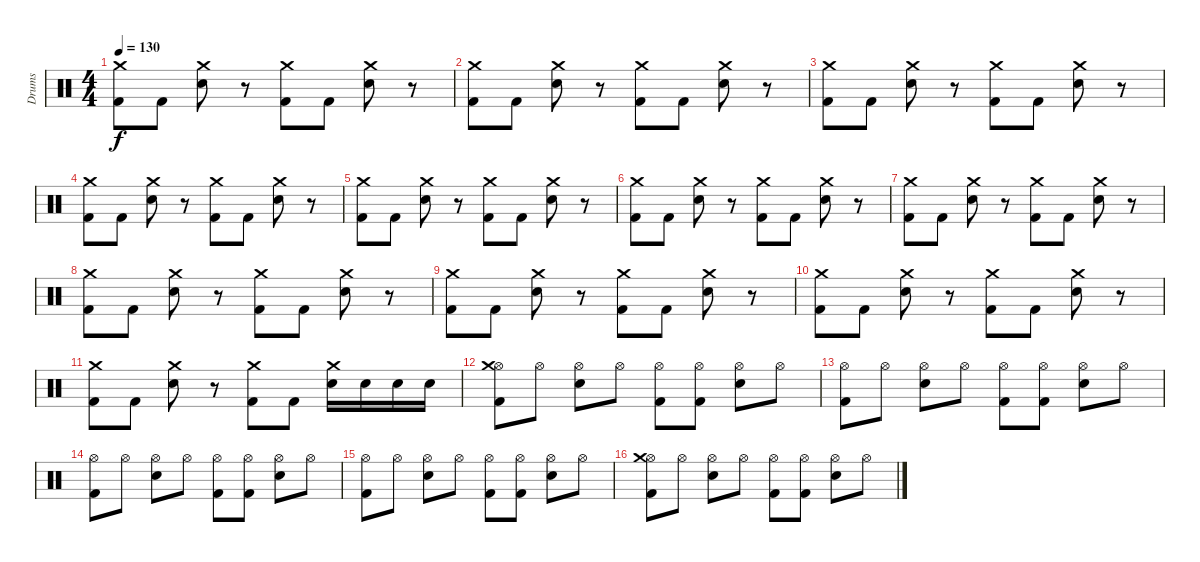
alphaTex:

\track ("Drums" "Drums") {instrument percussion}
\staff {score}
\articulation defaults
\ts (4 4)
\tempo 130
\clef neutral
\ks c
("Crash medium (hit)" "Kick (hit) 2").8{dy f} "Kick (hit) 2".8 ("Crash medium (hit)" "Snare (hit) 2").8 r.8 ("Crash medium (hit)" "Kick (hit) 2").8 "Kick (hit) 2".8 ("Crash medium (hit)" "Snare (hit) 2").8 r.8 |
("Crash medium (hit)" "Kick (hit) 2").8 "Kick (hit) 2".8 ("Crash medium (hit)" "Snare (hit) 2").8 r.8 ("Crash medium (hit)" "Kick (hit) 2").8 "Kick (hit) 2".8 ("Crash medium (hit)" "Snare (hit) 2").8 r.8 |
("Crash medium (hit)" "Kick (hit) 2").8 "Kick (hit) 2".8 ("Crash medium (hit)" "Snare (hit) 2").8 r.8 ("Crash medium (hit)" "Kick (hit) 2").8 "Kick (hit) 2".8 ("Crash medium (hit)" "Snare (hit) 2").8 r.8 |
("Crash medium (hit)" "Kick (hit) 2").8 "Kick (hit) 2".8 ("Crash medium (hit)" "Snare (hit) 2").8 r.8 ("Crash medium (hit)" "Kick (hit) 2").8 "Kick (hit) 2".8 ("Crash medium (hit)" "Snare (hit) 2").8 r.8 |
("Crash medium (hit)" "Kick (hit) 2").8 "Kick (hit) 2".8 ("Crash medium (hit)" "Snare (hit) 2").8 r.8 ("Crash medium (hit)" "Kick (hit) 2").8 "Kick (hit) 2".8 ("Crash medium (hit)" "Snare (hit) 2").8 r.8 |
("Crash medium (hit)" "Kick (hit) 2").8 "Kick (hit) 2".8 ("Crash medium (hit)" "Snare (hit) 2").8 r.8 ("Crash medium (hit)" "Kick (hit) 2").8 "Kick (hit) 2".8 ("Crash medium (hit)" "Snare (hit) 2").8 r.8 |
("Crash medium (hit)" "Kick (hit) 2").8 "Kick (hit) 2".8 ("Crash medium (hit)" "Snare (hit) 2").8 r.8 ("Crash medium (hit)" "Kick (hit) 2").8 "Kick (hit) 2".8 ("Crash medium (hit)" "Snare (hit) 2").8 r.8 |
("Crash medium (hit)" "Kick (hit) 2").8 "Kick (hit) 2".8 ("Crash medium (hit)" "Snare (hit) 2").8 r.8 ("Crash medium (hit)" "Kick (hit) 2").8 "Kick (hit) 2".8 ("Crash medium (hit)" "Snare (hit) 2").8 r.8 |
("Crash medium (hit)" "Kick (hit) 2").8 "Kick (hit) 2".8 ("Crash medium (hit)" "Snare (hit) 2").8 r.8 ("Crash medium (hit)" "Kick (hit) 2").8 "Kick (hit) 2".8 ("Crash medium (hit)" "Snare (hit) 2").8 r.8 |
("Crash medium (hit)" "Kick (hit) 2").8 "Kick (hit) 2".8 ("Crash medium (hit)" "Snare (hit) 2").8 r.8 ("Crash medium (hit)" "Kick (hit) 2").8 "Kick (hit) 2".8 ("Crash medium (hit)" "Snare (hit) 2").8 r.8 |
("Crash medium (hit)" "Kick (hit) 2").8 "Kick (hit) 2".8 ("Crash medium (hit)" "Snare (hit) 2").8 r.8 ("Crash medium (hit)" "Kick (hit) 2").8 "Kick (hit) 2".8 ("Crash medium (hit)" "Snare (hit) 2").16 "Snare (hit) 2".16 "Snare (hit) 2".16 "Snare (hit) 2".16 |
("Hi-Hat (open)" "Crash medium (hit)" "Kick (hit) 2").8 "Hi-Hat (open)".8 ("Hi-Hat (open)" "Snare (hit) 2").8 "Hi-Hat (open)".8 ("Hi-Hat (open)" "Kick (hit) 2").8 ("Hi-Hat (open)" "Kick (hit) 2").8 ("Hi-Hat (open)" "Snare (hit) 2").8 "Hi-Hat (open)".8 |
("Hi-Hat (open)" "Kick (hit) 2").8 "Hi-Hat (open)".8 ("Hi-Hat (open)" "Snare (hit) 2").8 "Hi-Hat (open)".8 ("Hi-Hat (open)" "Kick (hit) 2").8 ("Hi-Hat (open)" "Kick (hit) 2").8 ("Hi-Hat (open)" "Snare (hit) 2").8 "Hi-Hat (open)".8 |
("Hi-Hat (open)" "Kick (hit) 2").8 "Hi-Hat (open)".8 ("Hi-Hat (open)" "Snare (hit) 2").8 "Hi-Hat (open)".8 ("Hi-Hat (open)" "Kick (hit) 2").8 ("Hi-Hat (open)" "Kick (hit) 2").8 ("Hi-Hat (open)" "Snare (hit) 2").8 "Hi-Hat (open)".8 |
("Hi-Hat (open)" "Kick (hit) 2").8 "Hi-Hat (open)".8 ("Hi-Hat (open)" "Snare (hit) 2").8 "Hi-Hat (open)".8 ("Hi-Hat (open)" "Kick (hit) 2").8 ("Hi-Hat (open)" "Kick (hit) 2").8 ("Hi-Hat (open)" "Snare (hit) 2").8 "Hi-Hat (open)".8 |
("Hi-Hat (open)" "Crash medium (hit)" "Kick (hit) 2").8 "Hi-Hat (open)".8 ("Hi-Hat (open)" "Snare (hit) 2").8 "Hi-Hat (open)".8 ("Hi-Hat (open)" "Kick (hit) 2").8 ("Hi-Hat (open)" "Kick (hit) 2").8 ("Hi-Hat (open)" "Snare (hit) 2").8 "Hi-Hat (open)".8
